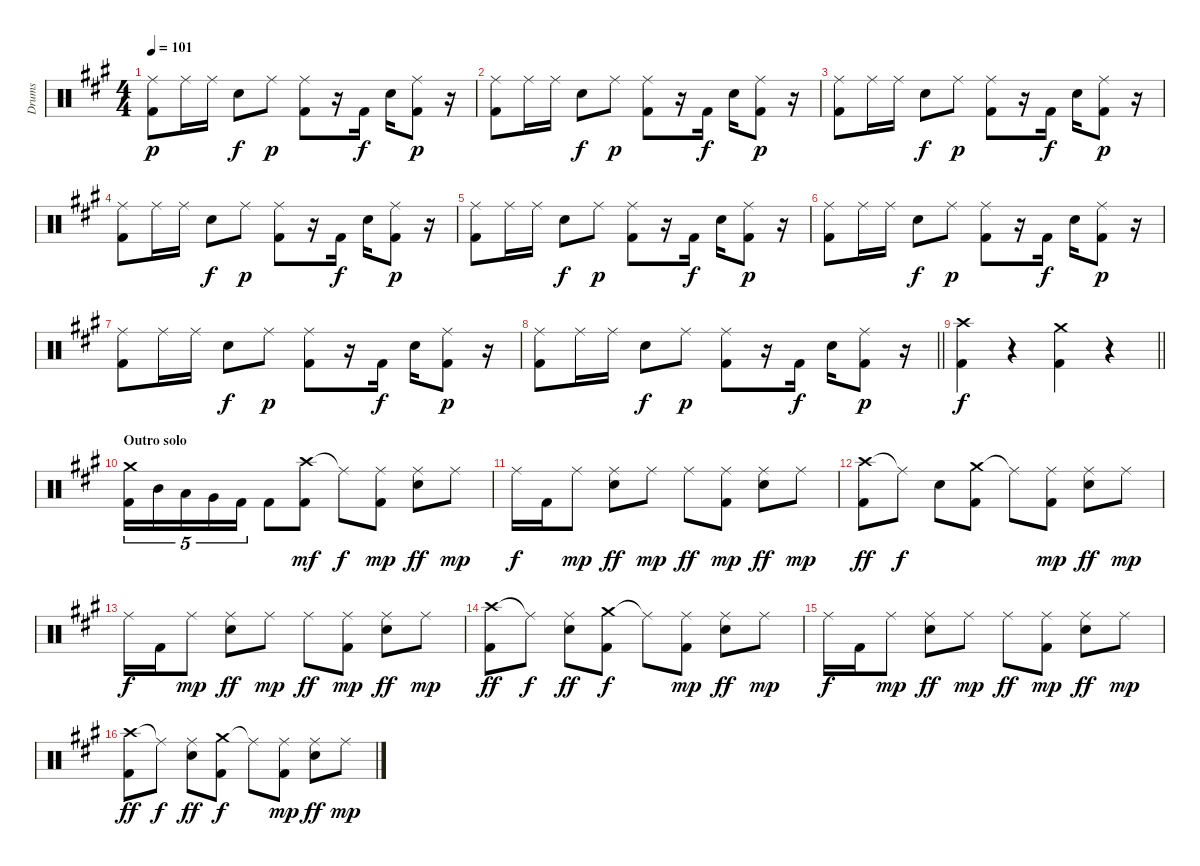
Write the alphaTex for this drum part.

\track ("Drums" "Drums") {instrument percussion}
\staff {score}
\articulation defaults
\ts (4 4)
\tempo 101
\clef neutral
\ks a
("Ride (middle)" "Kick (hit) 2").8{dy p} "Ride (middle)".16 "Ride (middle)".16 "Electric Snare (hit)".8{dy f} "Ride (middle)".8{dy p} ("Ride (middle)" "Kick (hit) 2").8 r.16 "Kick (hit) 2".16{dy f} "Electric Snare (hit)".16 ("Ride (middle)" "Kick (hit) 2").8{dy p} r.16 |
("Ride (middle)" "Kick (hit) 2").8 "Ride (middle)".16 "Ride (middle)".16 "Electric Snare (hit)".8{dy f} "Ride (middle)".8{dy p} ("Ride (middle)" "Kick (hit) 2").8 r.16 "Kick (hit) 2".16{dy f} "Electric Snare (hit)".16 ("Ride (middle)" "Kick (hit) 2").8{dy p} r.16 |
("Ride (middle)" "Kick (hit) 2").8 "Ride (middle)".16 "Ride (middle)".16 "Electric Snare (hit)".8{dy f} "Ride (middle)".8{dy p} ("Ride (middle)" "Kick (hit) 2").8 r.16 "Kick (hit) 2".16{dy f} "Electric Snare (hit)".16 ("Ride (middle)" "Kick (hit) 2").8{dy p} r.16 |
("Ride (middle)" "Kick (hit) 2").8 "Ride (middle)".16 "Ride (middle)".16 "Electric Snare (hit)".8{dy f} "Ride (middle)".8{dy p} ("Ride (middle)" "Kick (hit) 2").8 r.16 "Kick (hit) 2".16{dy f} "Electric Snare (hit)".16 ("Ride (middle)" "Kick (hit) 2").8{dy p} r.16 |
("Ride (middle)" "Kick (hit) 2").8 "Ride (middle)".16 "Ride (middle)".16 "Electric Snare (hit)".8{dy f} "Ride (middle)".8{dy p} ("Ride (middle)" "Kick (hit) 2").8 r.16 "Kick (hit) 2".16{dy f} "Electric Snare (hit)".16 ("Ride (middle)" "Kick (hit) 2").8{dy p} r.16 |
("Ride (middle)" "Kick (hit) 2").8 "Ride (middle)".16 "Ride (middle)".16 "Electric Snare (hit)".8{dy f} "Ride (middle)".8{dy p} ("Ride (middle)" "Kick (hit) 2").8 r.16 "Kick (hit) 2".16{dy f} "Electric Snare (hit)".16 ("Ride (middle)" "Kick (hit) 2").8{dy p} r.16 |
("Ride (middle)" "Kick (hit) 2").8 "Ride (middle)".16 "Ride (middle)".16 "Electric Snare (hit)".8{dy f} "Ride (middle)".8{dy p} ("Ride (middle)" "Kick (hit) 2").8 r.16 "Kick (hit) 2".16{dy f} "Electric Snare (hit)".16 ("Ride (middle)" "Kick (hit) 2").8{dy p} r.16 |
\barLineRight lightlight
("Ride (middle)" "Kick (hit) 2").8 "Ride (middle)".16 "Ride (middle)".16 "Electric Snare (hit)".8{dy f} "Ride (middle)".8{dy p} ("Ride (middle)" "Kick (hit) 2").8 r.16 "Kick (hit) 2".16{dy f} "Electric Snare (hit)".16 ("Ride (middle)" "Kick (hit) 2").8{dy p} r.16 |
\barLineRight lightlight
("Crash high (hit)" "Kick (hit) 2").4{dy f} r.4 ("Crash medium (hit)" "Kick (hit) 2").4 r.4 |
\section ("" "Outro solo")
("Crash medium (hit)" "Kick (hit) 2").16{tu (5 4)} "Mid Tom (hit)".16{tu (5 4)} "Low Tom (hit)".16{tu (5 4)} "Very Low Tom (hit)".16{tu (5 4)} "Kick (hit) 2".16{tu (5 4)} "Kick (hit) 2".8 ("Crash high (hit)" "Kick (hit) 2").8{dy mf} "Ride (middle)"{t}.8{dy f} ("Ride (middle)" "Kick (hit) 2").8{dy mp} ("Ride (middle)" "Electric Snare (hit)").8{dy ff} "Ride (middle)".8{dy mp} |
"Ride (middle)".16{dy f} "Kick (hit) 2".16 "Ride (middle)".8{dy mp} ("Ride (middle)" "Electric Snare (hit)").8{dy ff} "Ride (middle)".8{dy mp} "Ride (middle)".8{dy ff} ("Ride (middle)" "Kick (hit) 2").8{dy mp} ("Ride (middle)" "Electric Snare (hit)").8{dy ff} "Ride (middle)".8{dy mp} |
("Crash high (hit)" "Kick (hit) 2").8{dy ff} "Ride (middle)"{t}.8{dy f} "Electric Snare (hit)".8 ("Crash medium (hit)" "Kick (hit) 2").8 "Ride (middle)"{t}.8 ("Ride (middle)" "Kick (hit) 2").8{dy mp} ("Ride (middle)" "Electric Snare (hit)").8{dy ff} "Ride (middle)".8{dy mp} |
"Ride (middle)".16{dy f} "Kick (hit) 2".16 "Ride (middle)".8{dy mp} ("Ride (middle)" "Electric Snare (hit)").8{dy ff} "Ride (middle)".8{dy mp} "Ride (middle)".8{dy ff} ("Ride (middle)" "Kick (hit) 2").8{dy mp} ("Ride (middle)" "Electric Snare (hit)").8{dy ff} "Ride (middle)".8{dy mp} |
("Crash high (hit)" "Kick (hit) 2").8{dy ff} "Ride (middle)"{t}.8{dy f} ("Ride (middle)" "Electric Snare (hit)").8{dy ff} ("Crash medium (hit)" "Kick (hit) 2").8{dy f} "Ride (middle)"{t}.8 ("Ride (middle)" "Kick (hit) 2").8{dy mp} ("Ride (middle)" "Electric Snare (hit)").8{dy ff} "Ride (middle)".8{dy mp} |
"Ride (middle)".16{dy f} "Kick (hit) 2".16 "Ride (middle)".8{dy mp} ("Ride (middle)" "Electric Snare (hit)").8{dy ff} "Ride (middle)".8{dy mp} "Ride (middle)".8{dy ff} ("Ride (middle)" "Kick (hit) 2").8{dy mp} ("Ride (middle)" "Electric Snare (hit)").8{dy ff} "Ride (middle)".8{dy mp} |
("Crash high (hit)" "Kick (hit) 2").8{dy ff} "Ride (middle)"{t}.8{dy f} ("Ride (middle)" "Electric Snare (hit)").8{dy ff} ("Crash medium (hit)" "Kick (hit) 2").8{dy f} "Ride (middle)"{t}.8 ("Ride (middle)" "Kick (hit) 2").8{dy mp} ("Ride (middle)" "Electric Snare (hit)").8{dy ff} "Ride (middle)".8{dy mp}
